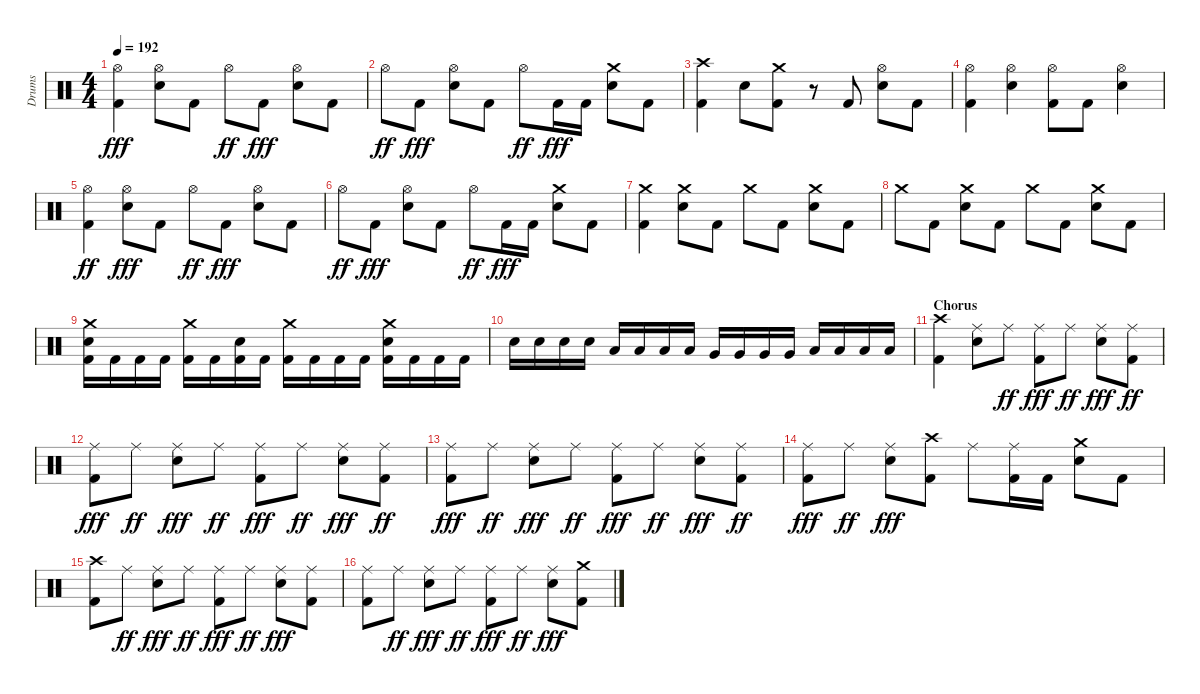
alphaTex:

\track ("Drums" "Drums") {instrument percussion}
\staff {score}
\articulation defaults
\ts (4 4)
\tempo 192
\clef neutral
\ks aminor
("Hi-Hat (open)" "Kick (hit) 2").4{dy fff} ("Snare (hit) 2" "Hi-Hat (open)").8 "Kick (hit) 2".8 "Hi-Hat (open)".8{dy ff} "Kick (hit) 2".8{dy fff} ("Snare (hit) 2" "Hi-Hat (open)").8 "Kick (hit) 2".8 |
"Hi-Hat (open)".8{dy ff} "Kick (hit) 2".8{dy fff} ("Hi-Hat (open)" "Snare (hit) 2").8 "Kick (hit) 2".8 "Hi-Hat (open)".8{dy ff} "Kick (hit) 2".16{dy fff} "Kick (hit) 2".16 ("Snare (hit) 2" "Crash medium (hit)").8 "Kick (hit) 2".8 |
("Kick (hit) 2" "Crash high (hit)").4 "Snare (hit) 2".8 ("Crash medium (hit)" "Kick (hit) 2").8 r.8 "Kick (hit) 2".8 ("Snare (hit) 2" "Hi-Hat (open)").8 "Kick (hit) 2".8 |
("Kick (hit) 2" "Hi-Hat (open)").4 ("Hi-Hat (open)" "Snare (hit) 2").4 ("Kick (hit) 2" "Hi-Hat (open)").8 "Kick (hit) 2".8 ("Hi-Hat (open)" "Snare (hit) 2").4 |
("Hi-Hat (open)" "Kick (hit) 2").4{dy ff} ("Hi-Hat (open)" "Snare (hit) 2").8{dy fff} "Kick (hit) 2".8 "Hi-Hat (open)".8{dy ff} "Kick (hit) 2".8{dy fff} ("Hi-Hat (open)" "Snare (hit) 2").8 "Kick (hit) 2".8 |
"Hi-Hat (open)".8{dy ff} "Kick (hit) 2".8{dy fff} ("Hi-Hat (open)" "Snare (hit) 2").8 "Kick (hit) 2".8 "Hi-Hat (open)".8{dy ff} "Kick (hit) 2".16{dy fff} "Kick (hit) 2".16 ("Crash medium (hit)" "Snare (hit) 2").8 "Kick (hit) 2".8 |
("Crash medium (hit)" "Kick (hit) 2").4 ("Crash medium (hit)" "Snare (hit) 2").8 "Kick (hit) 2".8 "Crash medium (hit)".8 "Kick (hit) 2".8 ("Snare (hit) 2" "Crash medium (hit)").8 "Kick (hit) 2".8 |
"Crash medium (hit)".8 "Kick (hit) 2".8 ("Snare (hit) 2" "Crash medium (hit)").8 "Kick (hit) 2".8 "Crash medium (hit)".8 "Kick (hit) 2".8 ("Snare (hit) 2" "Crash medium (hit)").8 "Kick (hit) 2".8 |
("Kick (hit) 2" "Snare (hit) 2" "Crash medium (hit)").16 "Kick (hit) 2".16 "Kick (hit) 2".16 "Kick (hit) 2".16 ("Kick (hit) 2" "Crash medium (hit)").16 "Kick (hit) 2".16 ("Snare (hit) 2" "Kick (hit) 2").16 "Kick (hit) 2".16 ("Kick (hit) 2" "Crash medium (hit)").16 "Kick (hit) 2".16 "Kick (hit) 2".16 "Kick (hit) 2".16 ("Kick (hit) 2" "Crash medium (hit)" "Snare (hit) 2").16 "Kick (hit) 2".16 "Kick (hit) 2".16 "Kick (hit) 2".16 |
"Snare (hit) 2".16 "Snare (hit) 2".16 "Snare (hit) 2".16 "Snare (hit) 2".16 "Low Tom (hit)".16 "Low Tom (hit)".16 "Low Tom (hit)".16 "Low Tom (hit)".16 "Very Low Tom (hit)".16 "Very Low Tom (hit)".16 "Very Low Tom (hit)".16 "Very Low Tom (hit)".16 "Low Floor Tom (hit)".16 "Low Floor Tom (hit)".16 "Low Floor Tom (hit)".16 "Low Floor Tom (hit)".16 |
\section ("" "Chorus")
("Kick (hit) 2" "Crash high (hit)").4 ("Snare (hit) 2" "Ride (middle)").8 "Ride (middle)".8{dy ff} ("Ride (middle)" "Kick (hit) 2").8{dy fff} "Ride (middle)".8{dy ff} ("Ride (middle)" "Snare (hit) 2").8{dy fff} ("Kick (hit) 2" "Ride (middle)").8{dy ff} |
("Ride (middle)" "Kick (hit) 2").8{dy fff} "Ride (middle)".8{dy ff} ("Ride (middle)" "Snare (hit) 2").8{dy fff} "Ride (middle)".8{dy ff} ("Kick (hit) 2" "Ride (middle)").8{dy fff} "Ride (middle)".8{dy ff} ("Ride (middle)" "Snare (hit) 2").8{dy fff} ("Kick (hit) 2" "Ride (middle)").8{dy ff} |
("Kick (hit) 2" "Ride (middle)").8{dy fff} "Ride (middle)".8{dy ff} ("Ride (middle)" "Snare (hit) 2").8{dy fff} "Ride (middle)".8{dy ff} ("Ride (middle)" "Kick (hit) 2").8{dy fff} "Ride (middle)".8{dy ff} ("Ride (middle)" "Snare (hit) 2").8{dy fff} ("Ride (middle)" "Kick (hit) 2").8{dy ff} |
("Kick (hit) 2" "Ride (middle)").8{dy fff} "Ride (middle)".8{dy ff} ("Ride (middle)" "Snare (hit) 2").8{dy fff} ("Kick (hit) 2" "Crash high (hit)").8 "Ride (middle)".8 ("Kick (hit) 2" "Ride (middle)").16 "Kick (hit) 2".16 ("Crash medium (hit)" "Snare (hit) 2").8 "Kick (hit) 2".8 |
("Kick (hit) 2" "Crash high (hit)").8 "Ride (middle)".8{dy ff} ("Snare (hit) 2" "Ride (middle)").8{dy fff} "Ride (middle)".8{dy ff} ("Ride (middle)" "Kick (hit) 2").8{dy fff} "Ride (middle)".8{dy ff} ("Ride (middle)" "Snare (hit) 2").8{dy fff} ("Ride (middle)" "Kick (hit) 2").8 |
("Kick (hit) 2" "Ride (middle)").8 "Ride (middle)".8{dy ff} ("Ride (middle)" "Snare (hit) 2").8{dy fff} "Ride (middle)".8{dy ff} ("Ride (middle)" "Kick (hit) 2").8{dy fff} "Ride (middle)".8{dy ff} ("Ride (middle)" "Snare (hit) 2").8{dy fff} ("Crash medium (hit)" "Kick (hit) 2").8
